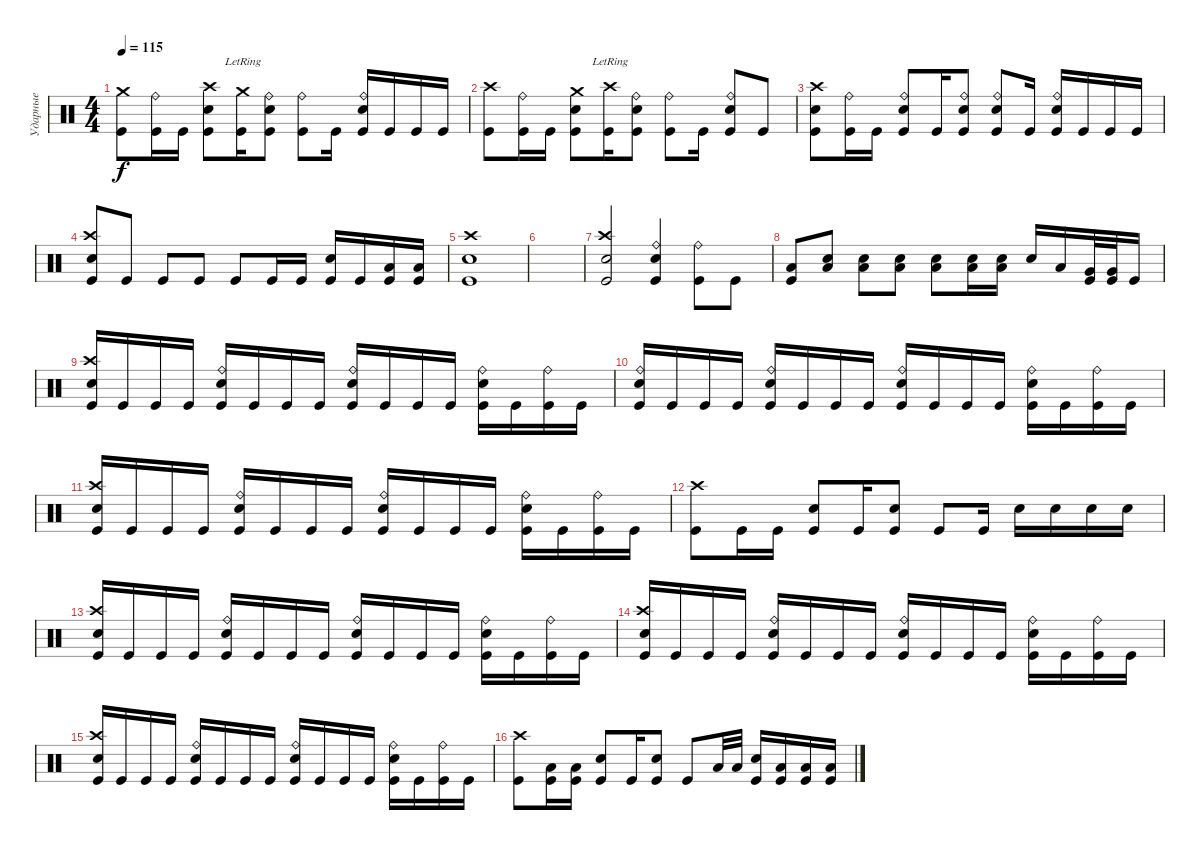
\track ("Ударные" "Ударные") {instrument percussion}
\staff {score}
\articulation defaults
\ts (4 4)
\tempo 115
\clef neutral
\ks c
("Crash medium (hit)" "Kick (hit)").8{dy f} ("Ride (bell)" "Kick (hit)").16 "Kick (hit)".16 ("Crash high (hit)" "Electric Snare (hit)" "Kick (hit)").8 ("Crash medium (hit)"{lr} "Kick (hit)").16 ("Ride (bell)" "Electric Snare (hit)" "Kick (hit)").8 ("Ride (bell)" "Kick (hit)").8 "Kick (hit)".16 ("Ride (bell)" "Electric Snare (hit)" "Kick (hit)").16 "Kick (hit)".16 "Kick (hit)".16 "Kick (hit)".16 |
("Crash high (hit)" "Kick (hit)").8 ("Ride (bell)" "Kick (hit)").16 "Kick (hit)".16 ("Crash medium (hit)" "Electric Snare (hit)" "Kick (hit)").8 ("Crash high (hit)"{lr} "Kick (hit)").16 ("Ride (bell)" "Electric Snare (hit)" "Kick (hit)").8 ("Ride (bell)" "Kick (hit)").8 "Kick (hit)".16 ("Ride (bell)" "Electric Snare (hit)" "Kick (hit)").8 "Kick (hit)".8 |
("Crash high (hit)" "Electric Snare (hit)" "Kick (hit)").8 ("Ride (bell)" "Kick (hit)").16 "Kick (hit)".16 ("Ride (bell)" "Electric Snare (hit)" "Kick (hit)").8 "Kick (hit)".16 ("Ride (bell)" "Electric Snare (hit)" "Kick (hit)").8 ("Ride (bell)" "Electric Snare (hit)" "Kick (hit)").8 "Kick (hit)".16 ("Ride (bell)" "Electric Snare (hit)" "Kick (hit)").16 "Kick (hit)".16 "Kick (hit)".16 "Kick (hit)".16 |
("Crash high (hit)" "Electric Snare (hit)" "Kick (hit)").8 "Kick (hit)".8 "Kick (hit)".8 "Kick (hit)".8 "Kick (hit)".8 "Kick (hit)".16 "Kick (hit)".16 ("Electric Snare (hit)" "Kick (hit)").16 "Kick (hit)".16 ("Low Tom (hit)" "Kick (hit)").16 ("Low Tom (hit)" "Kick (hit)").16 |
("Crash high (hit)" "Electric Snare (hit)" "Kick (hit)").1 |
|
("Crash high (hit)" "Electric Snare (hit)" "Kick (hit)").2 ("Ride (bell)" "Electric Snare (hit)" "Kick (hit)").4 ("Ride (bell)" "Kick (hit)").8 "Kick (hit)".8 |
("Low Tom (hit)" "Kick (hit)").8 ("Electric Snare (hit)" "Low Tom (hit)").8 ("Electric Snare (hit)" "Low Tom (hit)").8 ("Electric Snare (hit)" "Low Tom (hit)").8 ("Electric Snare (hit)" "Low Tom (hit)").8 ("Electric Snare (hit)" "Low Tom (hit)").16 ("Electric Snare (hit)" "Low Tom (hit)").16 "Electric Snare (hit)".16 "Low Tom (hit)".16 ("Very Low Tom (hit)" "Kick (hit)").32 ("Very Low Tom (hit)" "Kick (hit)").32 "Kick (hit)".16 |
("Crash high (hit)" "Electric Snare (hit)" "Kick (hit)").16 "Kick (hit)".16 "Kick (hit)".16 "Kick (hit)".16 ("Ride (bell)" "Electric Snare (hit)" "Kick (hit)").16 "Kick (hit)".16 "Kick (hit)".16 "Kick (hit)".16 ("Ride (bell)" "Electric Snare (hit)" "Kick (hit)").16 "Kick (hit)".16 "Kick (hit)".16 "Kick (hit)".16 ("Ride (bell)" "Electric Snare (hit)" "Kick (hit)").16 "Kick (hit)".16 ("Ride (bell)" "Kick (hit)").16 "Kick (hit)".16 |
("Ride (bell)" "Electric Snare (hit)" "Kick (hit)").16 "Kick (hit)".16 "Kick (hit)".16 "Kick (hit)".16 ("Ride (bell)" "Electric Snare (hit)" "Kick (hit)").16 "Kick (hit)".16 "Kick (hit)".16 "Kick (hit)".16 ("Ride (bell)" "Electric Snare (hit)" "Kick (hit)").16 "Kick (hit)".16 "Kick (hit)".16 "Kick (hit)".16 ("Ride (bell)" "Electric Snare (hit)" "Kick (hit)").16 "Kick (hit)".16 ("Ride (bell)" "Kick (hit)").16 "Kick (hit)".16 |
("Crash high (hit)" "Electric Snare (hit)" "Kick (hit)").16 "Kick (hit)".16 "Kick (hit)".16 "Kick (hit)".16 ("Ride (bell)" "Electric Snare (hit)" "Kick (hit)").16 "Kick (hit)".16 "Kick (hit)".16 "Kick (hit)".16 ("Ride (bell)" "Electric Snare (hit)" "Kick (hit)").16 "Kick (hit)".16 "Kick (hit)".16 "Kick (hit)".16 ("Ride (bell)" "Electric Snare (hit)" "Kick (hit)").16 "Kick (hit)".16 ("Ride (bell)" "Kick (hit)").16 "Kick (hit)".16 |
("Crash high (hit)" "Kick (hit)").8 "Kick (hit)".16 "Kick (hit)".16 ("Electric Snare (hit)" "Kick (hit)").8 "Kick (hit)".16 ("Electric Snare (hit)" "Kick (hit)").8 "Kick (hit)".8 "Kick (hit)".16 "Electric Snare (hit)".16 "Electric Snare (hit)".16 "Electric Snare (hit)".16 "Electric Snare (hit)".16 |
("Crash high (hit)" "Electric Snare (hit)" "Kick (hit)").16 "Kick (hit)".16 "Kick (hit)".16 "Kick (hit)".16 ("Ride (bell)" "Electric Snare (hit)" "Kick (hit)").16 "Kick (hit)".16 "Kick (hit)".16 "Kick (hit)".16 ("Ride (bell)" "Electric Snare (hit)" "Kick (hit)").16 "Kick (hit)".16 "Kick (hit)".16 "Kick (hit)".16 ("Ride (bell)" "Electric Snare (hit)" "Kick (hit)").16 "Kick (hit)".16 ("Ride (bell)" "Kick (hit)").16 "Kick (hit)".16 |
("Crash high (hit)" "Electric Snare (hit)" "Kick (hit)").16 "Kick (hit)".16 "Kick (hit)".16 "Kick (hit)".16 ("Ride (bell)" "Electric Snare (hit)" "Kick (hit)").16 "Kick (hit)".16 "Kick (hit)".16 "Kick (hit)".16 ("Ride (bell)" "Electric Snare (hit)" "Kick (hit)").16 "Kick (hit)".16 "Kick (hit)".16 "Kick (hit)".16 ("Ride (bell)" "Electric Snare (hit)" "Kick (hit)").16 "Kick (hit)".16 ("Ride (bell)" "Kick (hit)").16 "Kick (hit)".16 |
("Crash high (hit)" "Electric Snare (hit)" "Kick (hit)").16 "Kick (hit)".16 "Kick (hit)".16 "Kick (hit)".16 ("Ride (bell)" "Electric Snare (hit)" "Kick (hit)").16 "Kick (hit)".16 "Kick (hit)".16 "Kick (hit)".16 ("Ride (bell)" "Electric Snare (hit)" "Kick (hit)").16 "Kick (hit)".16 "Kick (hit)".16 "Kick (hit)".16 ("Ride (bell)" "Electric Snare (hit)" "Kick (hit)").16 "Kick (hit)".16 ("Ride (bell)" "Kick (hit)").16 "Kick (hit)".16 |
("Crash high (hit)" "Kick (hit)").8 ("Low Tom (hit)" "Kick (hit)").16 ("Low Tom (hit)" "Kick (hit)").16 ("Electric Snare (hit)" "Kick (hit)").8 "Kick (hit)".16 ("Electric Snare (hit)" "Kick (hit)").8 "Kick (hit)".8 "Low Tom (hit)".32 "Low Tom (hit)".32 ("Electric Snare (hit)" "Kick (hit)").16 ("Low Tom (hit)" "Kick (hit)").16 ("Low Tom (hit)" "Kick (hit)").16 ("Low Tom (hit)" "Kick (hit)").16
